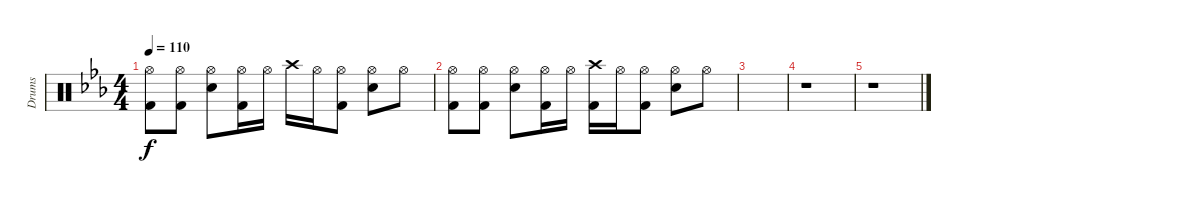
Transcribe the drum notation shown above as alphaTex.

\track ("Drums" "Drums") {instrument percussion}
\staff {score}
\articulation defaults
\ts (4 4)
\tempo 110
\clef neutral
\ks eb
("Hi-Hat (open)" "Kick (hit) 2").8{dy f} ("Hi-Hat (open)" "Kick (hit) 2").8 ("Hi-Hat (open)" "Snare (hit) 2").8 ("Hi-Hat (open)" "Kick (hit) 2").16 "Hi-Hat (open)".16 "Crash high (hit)".16 "Hi-Hat (open)".16 ("Hi-Hat (open)" "Kick (hit) 2").8 ("Hi-Hat (open)" "Snare (hit) 2").8 "Hi-Hat (open)".8 |
("Hi-Hat (open)" "Kick (hit) 2").8 ("Hi-Hat (open)" "Kick (hit) 2").8 ("Hi-Hat (open)" "Snare (hit) 2").8 ("Hi-Hat (open)" "Kick (hit) 2").16 "Hi-Hat (open)".16 ("Crash high (hit)" "Kick (hit) 2").16 "Hi-Hat (open)".16 ("Hi-Hat (open)" "Kick (hit) 2").8 ("Hi-Hat (open)" "Snare (hit) 2").8 "Hi-Hat (open)".8 |
|
r.1 |
r.1
